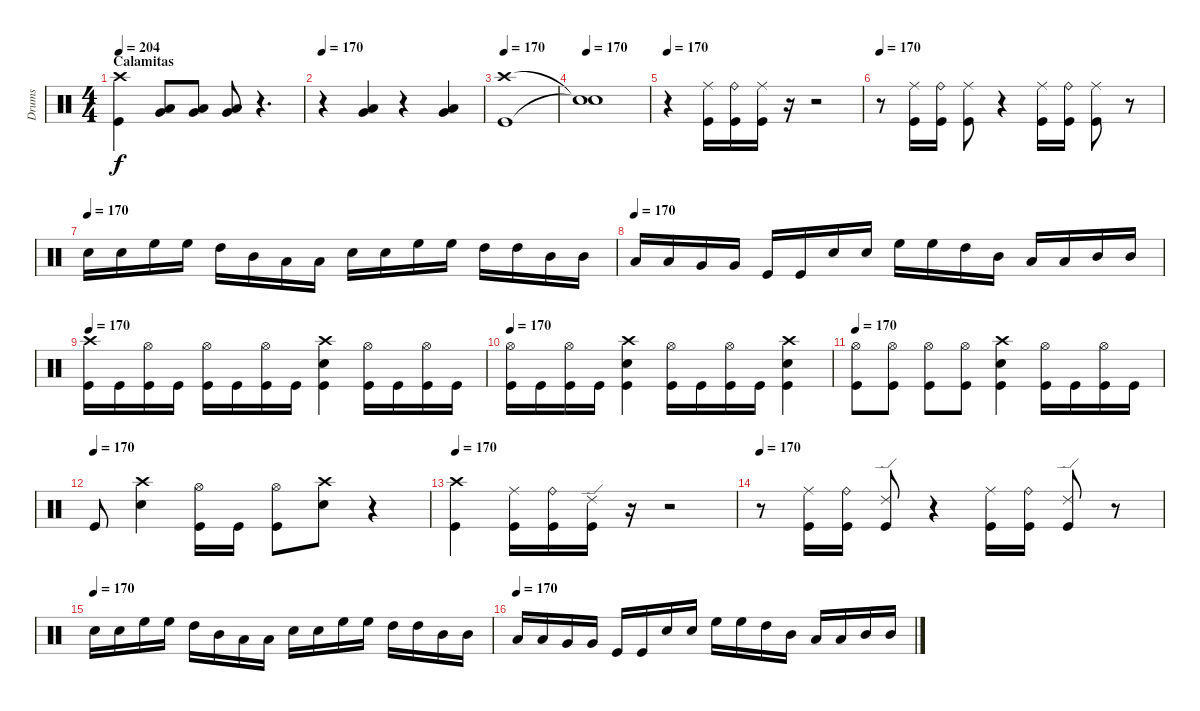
\track ("Drums" "Drums") {instrument percussion}
\staff {score}
\articulation defaults
\ts (4 4)
\section ("" "Calamitas")
\tempo 204
\tempo 170
\tempo 204
\clef neutral
\ks c
("Crash high (hit)" "Kick (hit)").4{dy f} ("Low Tom (hit)" "Very Low Tom (hit)").8 ("Low Tom (hit)" "Very Low Tom (hit)").8 ("Low Tom (hit)" "Very Low Tom (hit)").8 r.4{d} |
\tempo 170
r.4 ("Low Tom (hit)" "Very Low Tom (hit)").4 r.4 ("Low Tom (hit)" "Very Low Tom (hit)").4 |
\tempo 170
("Crash high (hit)" "Kick (hit)").1 |
\tempo 170
("Snare (hit)"{t} "Snare (hit)"{t}).1 |
\tempo 170
r.4 ("Ride (middle)" "Kick (hit)").16 ("Ride (bell)" "Kick (hit)").16 ("Ride (middle)" "Kick (hit)").16 r.16 r.2 |
\tempo 170
r.8 ("Ride (middle)" "Kick (hit)").16 ("Ride (bell)" "Kick (hit)").16 ("Ride (middle)" "Kick (hit)").8 r.4 ("Ride (middle)" "Kick (hit)").16 ("Ride (bell)" "Kick (hit)").16 ("Ride (middle)" "Kick (hit)").8 r.8 |
\tempo (170)
"Electric Snare (hit)".16 "Electric Snare (hit)".16 "High Floor Tom (hit)".16 "High Floor Tom (hit)".16 "High Tom (hit)".16 "Mid Tom (hit)".16 "Low Tom (hit)".16 "Low Tom (hit)".16 "Electric Snare (hit)".16 "Electric Snare (hit)".16 "High Floor Tom (hit)".16 "High Floor Tom (hit)".16 "High Tom (hit)".16 "High Tom (hit)".16 "Mid Tom (hit)".16 "Mid Tom (hit)".16 |
\tempo (170)
"Low Tom (hit)".16 "Low Tom (hit)".16 "Very Low Tom (hit)".16 "Very Low Tom (hit)".16 "Kick (hit)".16 "Kick (hit)".16 "Electric Snare (hit)".16 "Electric Snare (hit)".16 "High Floor Tom (hit)".16 "High Floor Tom (hit)".16 "High Tom (hit)".16 "Mid Tom (hit)".16 "Low Tom (hit)".16 "Low Tom (hit)".16 "Mid Tom (hit)".16 "Mid Tom (hit)".16 |
\tempo 170
("Crash high (hit)" "Kick (hit)").16 "Kick (hit)".16 ("Hi-Hat (open)" "Kick (hit)").16 "Kick (hit)".16 ("Hi-Hat (open)" "Kick (hit)").16 "Kick (hit)".16 ("Hi-Hat (open)" "Kick (hit)").16 "Kick (hit)".16 ("Crash high (hit)" "Electric Snare (hit)" "Kick (hit)").4 ("Hi-Hat (open)" "Kick (hit)").16 "Kick (hit)".16 ("Hi-Hat (open)" "Kick (hit)").16 "Kick (hit)".16 |
\tempo 170
("Hi-Hat (open)" "Kick (hit)").16 "Kick (hit)".16 ("Hi-Hat (open)" "Kick (hit)").16 "Kick (hit)".16 ("Crash high (hit)" "Electric Snare (hit)" "Kick (hit)").4 ("Hi-Hat (open)" "Kick (hit)").16 "Kick (hit)".16 ("Hi-Hat (open)" "Kick (hit)").16 "Kick (hit)".16 ("Crash high (hit)" "Electric Snare (hit)" "Kick (hit)").4 |
\tempo 170
("Hi-Hat (open)" "Kick (hit)").8 ("Hi-Hat (open)" "Kick (hit)").8 ("Hi-Hat (open)" "Kick (hit)").8 ("Hi-Hat (open)" "Kick (hit)").8 ("Crash high (hit)" "Electric Snare (hit)" "Kick (hit)").4 ("Hi-Hat (open)" "Kick (hit)").16 "Kick (hit)".16 ("Hi-Hat (open)" "Kick (hit)").16 "Kick (hit)".16 |
\tempo (170)
"Kick (hit)".8 ("Crash high (hit)" "Electric Snare (hit)").4 ("Hi-Hat (open)" "Kick (hit)").16 "Kick (hit)".16 ("Hi-Hat (open)" "Kick (hit)").8 ("Crash high (hit)" "Electric Snare (hit)").8 r.4 |
\tempo 170
("Crash high (hit)" "Kick (hit)").4 ("Ride (middle)" "Kick (hit)").16 ("Ride (bell)" "Kick (hit)").16 ("Ride (edge) 2" "Kick (hit)").16 r.16 r.2 |
\tempo 170
r.8 ("Ride (middle)" "Kick (hit)").16 ("Ride (bell)" "Kick (hit)").16 ("Ride (edge) 2" "Kick (hit)").8 r.4 ("Ride (middle)" "Kick (hit)").16 ("Ride (bell)" "Kick (hit)").16 ("Ride (edge) 2" "Kick (hit)").8 r.8 |
\tempo (170)
"Electric Snare (hit)".16 "Electric Snare (hit)".16 "High Floor Tom (hit)".16 "High Floor Tom (hit)".16 "High Tom (hit)".16 "Mid Tom (hit)".16 "Low Tom (hit)".16 "Low Tom (hit)".16 "Electric Snare (hit)".16 "Electric Snare (hit)".16 "High Floor Tom (hit)".16 "High Floor Tom (hit)".16 "High Tom (hit)".16 "High Tom (hit)".16 "Mid Tom (hit)".16 "Mid Tom (hit)".16 |
\tempo (170)
"Low Tom (hit)".16 "Low Tom (hit)".16 "Very Low Tom (hit)".16 "Very Low Tom (hit)".16 "Kick (hit)".16 "Kick (hit)".16 "Electric Snare (hit)".16 "Electric Snare (hit)".16 "High Floor Tom (hit)".16 "High Floor Tom (hit)".16 "High Tom (hit)".16 "Mid Tom (hit)".16 "Low Tom (hit)".16 "Low Tom (hit)".16 "Mid Tom (hit)".16 "Mid Tom (hit)".16
